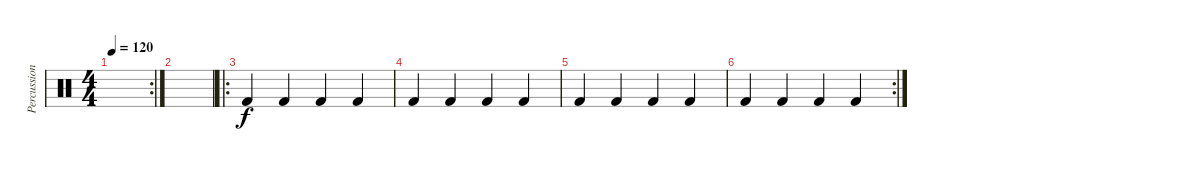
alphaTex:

\track ("Percussion" "Percussion") {instrument percussion}
\staff {score}
\articulation defaults
\rc 2
\ts (4 4)
\tempo 120
\clef neutral
\ks c
|
|
\ro "Kick (hit) 2".4 "Kick (hit) 2".4 "Kick (hit) 2".4 "Kick (hit) 2".4
|
"Kick (hit) 2".4 "Kick (hit) 2".4 "Kick (hit) 2".4 "Kick (hit) 2".4 |
"Kick (hit) 2".4 "Kick (hit) 2".4 "Kick (hit) 2".4 "Kick (hit) 2".4 |
\rc 2 "Kick (hit) 2".4 "Kick (hit) 2".4 "Kick (hit) 2".4 "Kick (hit) 2".4
